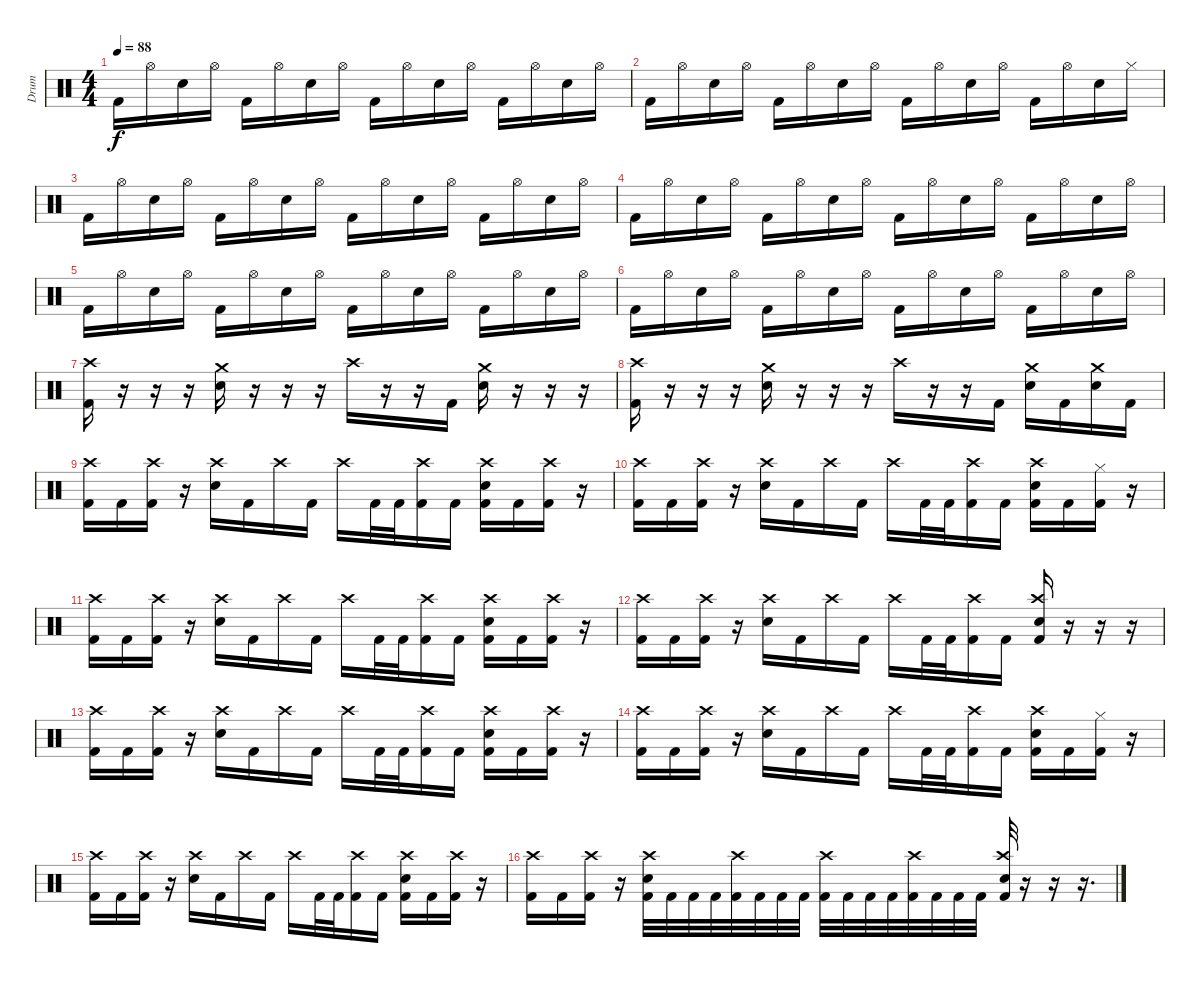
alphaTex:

\track ("Drum" "Drum") {instrument percussion}
\staff {score}
\articulation defaults
\ts (4 4)
\tempo 88
\clef neutral
\ks c "Kick (hit) 2".16{dy f} "Hi-Hat (open)".16 "Electric Snare (hit)".16 "Hi-Hat (open)".16 "Kick (hit) 2".16 "Hi-Hat (open)".16 "Electric Snare (hit)".16 "Hi-Hat (open)".16 "Kick (hit) 2".16 "Hi-Hat (open)".16 "Electric Snare (hit)".16 "Hi-Hat (open)".16 "Kick (hit) 2".16 "Hi-Hat (open)".16 "Electric Snare (hit)".16 "Hi-Hat (open)".16
|
"Kick (hit) 2".16 "Hi-Hat (open)".16 "Electric Snare (hit)".16 "Hi-Hat (open)".16 "Kick (hit) 2".16 "Hi-Hat (open)".16 "Electric Snare (hit)".16 "Hi-Hat (open)".16 "Kick (hit) 2".16 "Hi-Hat (open)".16 "Electric Snare (hit)".16 "Hi-Hat (open)".16 "Kick (hit) 2".16 "Hi-Hat (open)".16 "Electric Snare (hit)".16 "Hi-Hat (closed)".16 |
"Kick (hit) 2".16 "Hi-Hat (open)".16 "Electric Snare (hit)".16 "Hi-Hat (open)".16 "Kick (hit) 2".16 "Hi-Hat (open)".16 "Electric Snare (hit)".16 "Hi-Hat (open)".16 "Kick (hit) 2".16 "Hi-Hat (open)".16 "Electric Snare (hit)".16 "Hi-Hat (open)".16 "Kick (hit) 2".16 "Hi-Hat (open)".16 "Electric Snare (hit)".16 "Hi-Hat (open)".16 |
"Kick (hit) 2".16 "Hi-Hat (open)".16 "Electric Snare (hit)".16 "Hi-Hat (open)".16 "Kick (hit) 2".16 "Hi-Hat (open)".16 "Electric Snare (hit)".16 "Hi-Hat (open)".16 "Kick (hit) 2".16 "Hi-Hat (open)".16 "Electric Snare (hit)".16 "Hi-Hat (open)".16 "Kick (hit) 2".16 "Hi-Hat (open)".16 "Electric Snare (hit)".16 "Hi-Hat (open)".16 |
"Kick (hit) 2".16 "Hi-Hat (open)".16 "Electric Snare (hit)".16 "Hi-Hat (open)".16 "Kick (hit) 2".16 "Hi-Hat (open)".16 "Electric Snare (hit)".16 "Hi-Hat (open)".16 "Kick (hit) 2".16 "Hi-Hat (open)".16 "Electric Snare (hit)".16 "Hi-Hat (open)".16 "Kick (hit) 2".16 "Hi-Hat (open)".16 "Electric Snare (hit)".16 "Hi-Hat (open)".16 |
"Kick (hit) 2".16 "Hi-Hat (open)".16 "Electric Snare (hit)".16 "Hi-Hat (open)".16 "Kick (hit) 2".16 "Hi-Hat (open)".16 "Electric Snare (hit)".16 "Hi-Hat (open)".16 "Kick (hit) 2".16 "Hi-Hat (open)".16 "Electric Snare (hit)".16 "Hi-Hat (open)".16 "Kick (hit) 2".16 "Hi-Hat (open)".16 "Electric Snare (hit)".16 "Hi-Hat (open)".16 |
("Crash high (hit)" "Kick (hit) 2").16 r.16 r.16 r.16 ("Crash medium (hit)" "Electric Snare (hit)").16 r.16 r.16 r.16 "Crash high (hit)".16 r.16 r.16 "Kick (hit) 2".16 ("Crash medium (hit)" "Electric Snare (hit)").16 r.16 r.16 r.16 |
("Crash high (hit)" "Kick (hit) 2").16 r.16 r.16 r.16 ("Crash medium (hit)" "Electric Snare (hit)").16 r.16 r.16 r.16 "Crash high (hit)".16 r.16 r.16 "Kick (hit) 2".16 ("Crash medium (hit)" "Electric Snare (hit)").16 "Kick (hit) 2".16 ("Crash medium (hit)" "Electric Snare (hit)").16 "Kick (hit) 2".16 |
("Crash high (hit)" "Kick (hit) 2").16 "Kick (hit) 2".16 ("Crash high (hit)" "Kick (hit) 2").16 r.16 ("Crash high (hit)" "Snare (hit) 2").16 "Kick (hit) 2".16 "Crash high (hit)".16 "Kick (hit) 2".16 "Crash high (hit)".16 "Kick (hit) 2".32 "Kick (hit) 2".32 ("Crash high (hit)" "Kick (hit) 2").16 "Kick (hit) 2".16 ("Crash high (hit)" "Snare (hit) 2" "Kick (hit) 2").16 "Kick (hit) 2".16 ("Crash high (hit)" "Kick (hit) 2").16 r.16 |
("Crash high (hit)" "Kick (hit) 2").16 "Kick (hit) 2".16 ("Crash high (hit)" "Kick (hit) 2").16 r.16 ("Crash high (hit)" "Snare (hit) 2").16 "Kick (hit) 2".16 "Crash high (hit)".16 "Kick (hit) 2".16 "Crash high (hit)".16 "Kick (hit) 2".32 "Kick (hit) 2".32 ("Crash high (hit)" "Kick (hit) 2").16 "Kick (hit) 2".16 ("Crash high (hit)" "Snare (hit) 2" "Kick (hit) 2").16 "Kick (hit) 2".16 ("Hi-Hat (closed)" "Kick (hit) 2").16 r.16 |
("Crash high (hit)" "Kick (hit) 2").16 "Kick (hit) 2".16 ("Crash high (hit)" "Kick (hit) 2").16 r.16 ("Crash high (hit)" "Snare (hit) 2").16 "Kick (hit) 2".16 "Crash high (hit)".16 "Kick (hit) 2".16 "Crash high (hit)".16 "Kick (hit) 2".32 "Kick (hit) 2".32 ("Crash high (hit)" "Kick (hit) 2").16 "Kick (hit) 2".16 ("Crash high (hit)" "Snare (hit) 2" "Kick (hit) 2").16 "Kick (hit) 2".16 ("Crash high (hit)" "Kick (hit) 2").16 r.16 |
("Crash high (hit)" "Kick (hit) 2").16 "Kick (hit) 2".16 ("Crash high (hit)" "Kick (hit) 2").16 r.16 ("Crash high (hit)" "Snare (hit) 2").16 "Kick (hit) 2".16 "Crash high (hit)".16 "Kick (hit) 2".16 "Crash high (hit)".16 "Kick (hit) 2".32 "Kick (hit) 2".32 ("Crash high (hit)" "Kick (hit) 2").16 "Kick (hit) 2".16 ("Crash high (hit)" "Snare (hit) 2" "Kick (hit) 2").16 r.16 r.16 r.16 |
("Crash high (hit)" "Kick (hit) 2").16 "Kick (hit) 2".16 ("Crash high (hit)" "Kick (hit) 2").16 r.16 ("Crash high (hit)" "Snare (hit) 2").16 "Kick (hit) 2".16 "Crash high (hit)".16 "Kick (hit) 2".16 "Crash high (hit)".16 "Kick (hit) 2".32 "Kick (hit) 2".32 ("Crash high (hit)" "Kick (hit) 2").16 "Kick (hit) 2".16 ("Crash high (hit)" "Snare (hit) 2" "Kick (hit) 2").16 "Kick (hit) 2".16 ("Crash high (hit)" "Kick (hit) 2").16 r.16 |
("Crash high (hit)" "Kick (hit) 2").16 "Kick (hit) 2".16 ("Crash high (hit)" "Kick (hit) 2").16 r.16 ("Crash high (hit)" "Snare (hit) 2").16 "Kick (hit) 2".16 "Crash high (hit)".16 "Kick (hit) 2".16 "Crash high (hit)".16 "Kick (hit) 2".32 "Kick (hit) 2".32 ("Crash high (hit)" "Kick (hit) 2").16 "Kick (hit) 2".16 ("Crash high (hit)" "Snare (hit) 2" "Kick (hit) 2").16 "Kick (hit) 2".16 ("Hi-Hat (closed)" "Kick (hit) 2").16 r.16 |
("Crash high (hit)" "Kick (hit) 2").16 "Kick (hit) 2".16 ("Crash high (hit)" "Kick (hit) 2").16 r.16 ("Crash high (hit)" "Snare (hit) 2").16 "Kick (hit) 2".16 "Crash high (hit)".16 "Kick (hit) 2".16 "Crash high (hit)".16 "Kick (hit) 2".32 "Kick (hit) 2".32 ("Crash high (hit)" "Kick (hit) 2").16 "Kick (hit) 2".16 ("Crash high (hit)" "Snare (hit) 2" "Kick (hit) 2").16 "Kick (hit) 2".16 ("Crash high (hit)" "Kick (hit) 2").16 r.16 |
("Crash high (hit)" "Kick (hit) 2").16 "Kick (hit) 2".16 ("Crash high (hit)" "Kick (hit) 2").16 r.16 ("Crash high (hit)" "Snare (hit) 2" "Kick (hit) 2").32 "Kick (hit) 2".32 "Kick (hit) 2".32 "Kick (hit) 2".32 ("Crash high (hit)" "Kick (hit) 2").32 "Kick (hit) 2".32 "Kick (hit) 2".32 "Kick (hit) 2".32 ("Crash high (hit)" "Kick (hit) 2").32 "Kick (hit) 2".32 "Kick (hit) 2".32 "Kick (hit) 2".32 ("Crash high (hit)" "Kick (hit) 2").32 "Kick (hit) 2".32 "Kick (hit) 2".32 "Kick (hit) 2".32 ("Crash high (hit)" "Snare (hit) 2" "Kick (hit) 2").32 r.16 r.16 r.16{d}
